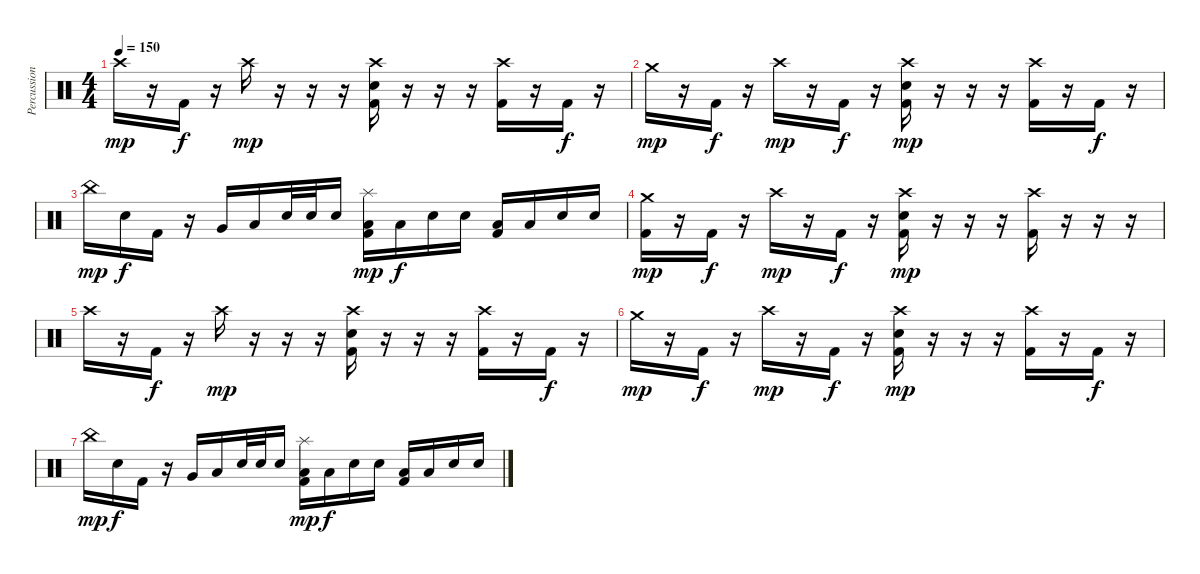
\track ("Percussion" "Percussion") {instrument percussion}
\staff {score}
\articulation defaults
\ts (4 4)
\tempo 150
\clef neutral
\ks c "Crash high (hit)".16{dy mp}
r.16 "Kick (hit) 2".16{dy f} r.16 "Crash high (hit)".16{dy mp} r.16 r.16 r.16 ("Crash high (hit)" "Electric Snare (hit)" "Kick (hit) 2").16 r.16 r.16 r.16 ("Crash high (hit)" "Kick (hit) 2").16 r.16 "Kick (hit) 2".16{dy f} r.16 |
"Crash medium (hit)".16{dy mp} r.16 "Kick (hit) 2".16{dy f} r.16 "Crash high (hit)".16{dy mp} r.16 "Kick (hit) 2".16{dy f} r.16 ("Crash high (hit)" "Electric Snare (hit)" "Kick (hit) 2").16{dy mp} r.16 r.16 r.16 ("Crash high (hit)" "Kick (hit) 2").16 r.16 "Kick (hit) 2".16{dy f} r.16 |
"China (hit)".16{dy mp} "Electric Snare (hit)".16{dy f} "Kick (hit) 2".16 r.16 "Very Low Tom (hit)".16 "Low Floor Tom (hit)".16 "Electric Snare (hit)".32 "Electric Snare (hit)".32 "Electric Snare (hit)".16 ("Splash (hit)" "Low Floor Tom (hit)" "Kick (hit) 2").16{dy mp} "Low Floor Tom (hit)".16{dy f} "Electric Snare (hit)".16 "Electric Snare (hit)".16 ("Low Floor Tom (hit)" "Kick (hit) 2").16 "Low Floor Tom (hit)".16 "Electric Snare (hit)".16 "Electric Snare (hit)".16 |
("Crash medium (hit)" "Kick (hit) 2").16{dy mp} r.16 "Kick (hit) 2".16{dy f} r.16 "Crash high (hit)".16{dy mp} r.16 "Kick (hit) 2".16{dy f} r.16 ("Crash high (hit)" "Electric Snare (hit)" "Kick (hit) 2").16{dy mp} r.16 r.16 r.16 ("Crash high (hit)" "Kick (hit) 2").16 r.16 r.16 r.16 |
"Crash high (hit)".16 r.16 "Kick (hit) 2".16{dy f} r.16 "Crash high (hit)".16{dy mp} r.16 r.16 r.16 ("Crash high (hit)" "Electric Snare (hit)" "Kick (hit) 2").16 r.16 r.16 r.16 ("Crash high (hit)" "Kick (hit) 2").16 r.16 "Kick (hit) 2".16{dy f} r.16 |
"Crash medium (hit)".16{dy mp} r.16 "Kick (hit) 2".16{dy f} r.16 "Crash high (hit)".16{dy mp} r.16 "Kick (hit) 2".16{dy f} r.16 ("Crash high (hit)" "Electric Snare (hit)" "Kick (hit) 2").16{dy mp} r.16 r.16 r.16 ("Crash high (hit)" "Kick (hit) 2").16 r.16 "Kick (hit) 2".16{dy f} r.16 |
"China (hit)".16{dy mp} "Electric Snare (hit)".16{dy f} "Kick (hit) 2".16 r.16 "Very Low Tom (hit)".16 "Low Floor Tom (hit)".16 "Electric Snare (hit)".32 "Electric Snare (hit)".32 "Electric Snare (hit)".16 ("Splash (hit)" "Low Floor Tom (hit)" "Kick (hit) 2").16{dy mp} "Low Floor Tom (hit)".16{dy f} "Electric Snare (hit)".16 "Electric Snare (hit)".16 ("Low Floor Tom (hit)" "Kick (hit) 2").16 "Low Floor Tom (hit)".16 "Electric Snare (hit)".16 "Electric Snare (hit)".16
